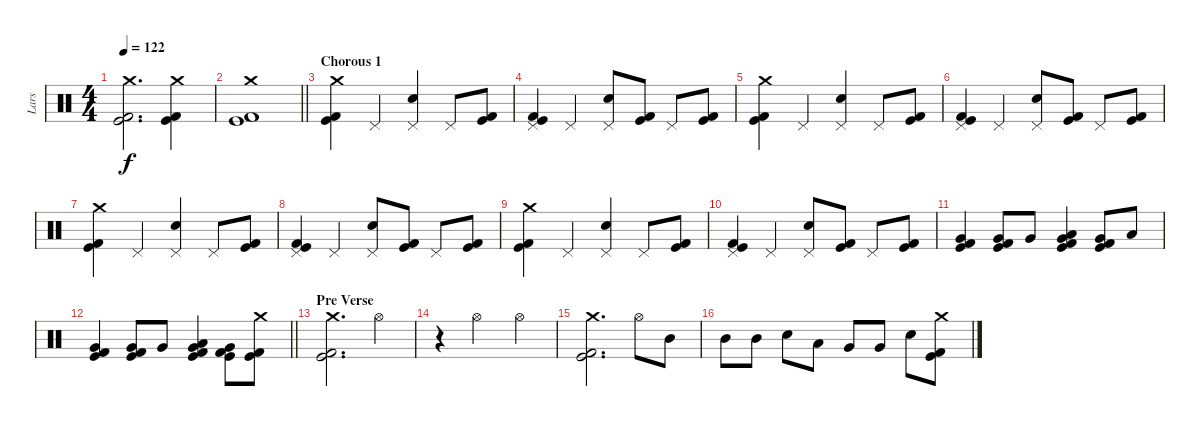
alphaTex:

\track ("Lars" "Lars") {instrument percussion}
\staff {score}
\articulation defaults
\ts (4 4)
\tempo 122
\clef neutral
\ks c
("Crash medium (hit)" "Kick (hit)" "Kick (hit) 2").2{d dy f} ("Crash medium (hit)" "Kick (hit)" "Kick (hit) 2").4 |
\barLineRight lightlight
("Crash medium (hit)" "Kick (hit)" "Kick (hit) 2").1 |
\section ("" "Chorous 1")
("Crash medium (hit)" "Kick (hit)" "Kick (hit) 2").4 "Pedal Hi-Hat (hit)".4 ("Pedal Hi-Hat (hit)" "Electric Snare (hit)").4 "Pedal Hi-Hat (hit)".8 ("Kick (hit)" "Kick (hit) 2").8 |
("Pedal Hi-Hat (hit)" "Kick (hit)" "Kick (hit) 2").4 "Pedal Hi-Hat (hit)".4 ("Pedal Hi-Hat (hit)" "Electric Snare (hit)").8 ("Kick (hit)" "Kick (hit) 2").8 "Pedal Hi-Hat (hit)".8 ("Kick (hit)" "Kick (hit) 2").8 |
("Crash medium (hit)" "Kick (hit)" "Kick (hit) 2").4 "Pedal Hi-Hat (hit)".4 ("Pedal Hi-Hat (hit)" "Electric Snare (hit)").4 "Pedal Hi-Hat (hit)".8 ("Kick (hit)" "Kick (hit) 2").8 |
("Pedal Hi-Hat (hit)" "Kick (hit)" "Kick (hit) 2").4 "Pedal Hi-Hat (hit)".4 ("Pedal Hi-Hat (hit)" "Electric Snare (hit)").8 ("Kick (hit)" "Kick (hit) 2").8 "Pedal Hi-Hat (hit)".8 ("Kick (hit)" "Kick (hit) 2").8 |
("Crash medium (hit)" "Kick (hit)" "Kick (hit) 2").4 "Pedal Hi-Hat (hit)".4 ("Pedal Hi-Hat (hit)" "Electric Snare (hit)").4 "Pedal Hi-Hat (hit)".8 ("Kick (hit)" "Kick (hit) 2").8 |
("Pedal Hi-Hat (hit)" "Kick (hit)" "Kick (hit) 2").4 "Pedal Hi-Hat (hit)".4 ("Pedal Hi-Hat (hit)" "Electric Snare (hit)").8 ("Kick (hit)" "Kick (hit) 2").8 "Pedal Hi-Hat (hit)".8 ("Kick (hit)" "Kick (hit) 2").8 |
("Crash medium (hit)" "Kick (hit)" "Kick (hit) 2").4 "Pedal Hi-Hat (hit)".4 ("Pedal Hi-Hat (hit)" "Electric Snare (hit)").4 "Pedal Hi-Hat (hit)".8 ("Kick (hit)" "Kick (hit) 2").8 |
("Pedal Hi-Hat (hit)" "Kick (hit)" "Kick (hit) 2").4 "Pedal Hi-Hat (hit)".4 ("Pedal Hi-Hat (hit)" "Electric Snare (hit)").8 ("Kick (hit)" "Kick (hit) 2").8 "Pedal Hi-Hat (hit)".8 ("Kick (hit)" "Kick (hit) 2").8 |
("Very Low Tom (hit)" "Kick (hit)" "Kick (hit) 2").4 ("Very Low Tom (hit)" "Kick (hit)" "Kick (hit) 2").8 "Very Low Tom (hit)".8 ("Very Low Tom (hit)" "Kick (hit)" "Kick (hit) 2" "Low Tom (hit)").4 ("Very Low Tom (hit)" "Kick (hit)" "Kick (hit) 2").8 "Low Tom (hit)".8 |
\barLineRight lightlight
("Very Low Tom (hit)" "Kick (hit)" "Kick (hit) 2").4 ("Very Low Tom (hit)" "Kick (hit)" "Kick (hit) 2").8 "Very Low Tom (hit)".8 ("Very Low Tom (hit)" "Kick (hit)" "Kick (hit) 2" "Low Tom (hit)").4 ("Very Low Tom (hit)" "Kick (hit)" "Kick (hit) 2").8 ("Crash medium (hit)" "Kick (hit)" "Kick (hit) 2").8 |
\section ("" "Pre Verse ")
("Crash medium (hit)" "Kick (hit)" "Kick (hit) 2").2{d} "Hi-Hat (open)".4 |
r.4 "Hi-Hat (open)".2 "Hi-Hat (open)".4 |
("Crash medium (hit)" "Kick (hit)" "Kick (hit) 2").2{d} "Hi-Hat (open)".8 "Mid Tom (hit)".8 |
"Mid Tom (hit)".8 "Mid Tom (hit)".8 "Electric Snare (hit)".8 "Low Tom (hit)".8 "Very Low Tom (hit)".8 "Very Low Tom (hit)".8 "Electric Snare (hit)".8 ("Crash medium (hit)" "Kick (hit)" "Kick (hit) 2").8
